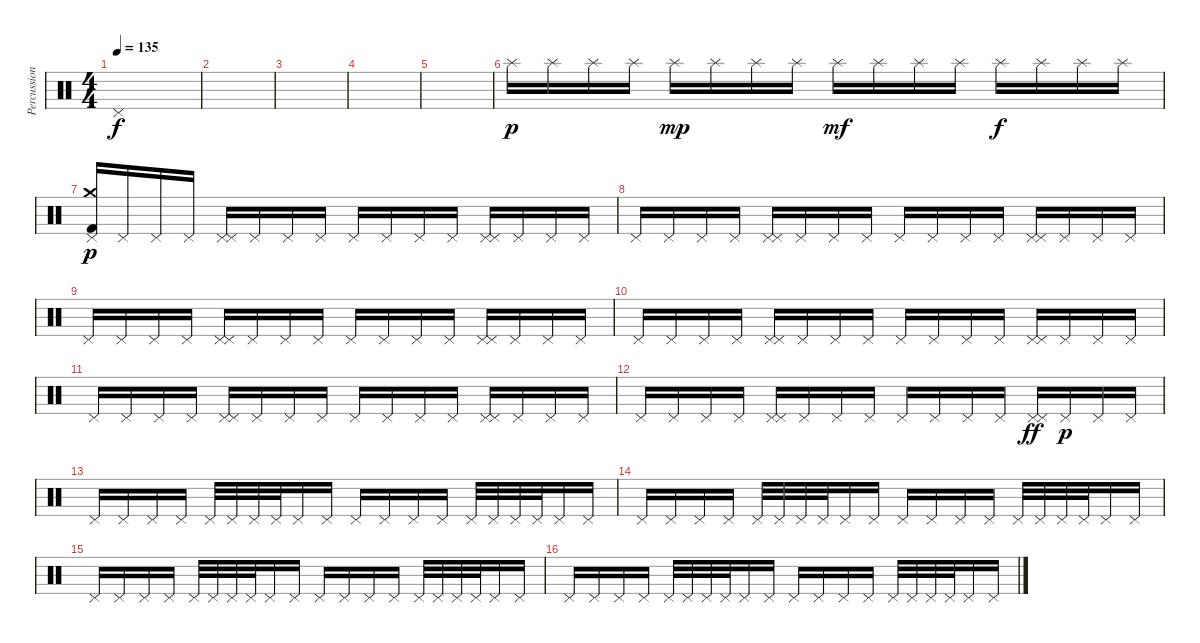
\track ("Percussions" "Percussion") {instrument percussion}
\staff {score}
\articulation defaults
\ts (4 4)
\tempo 135
\clef neutral
\ks c "Pedal Hi-Hat (hit)".1{dy f}
|
|
|
|
|
"Splash (hit)".16{dy p} "Splash (hit)".16 "Splash (hit)".16 "Splash (hit)".16 "Splash (hit)".16{dy mp} "Splash (hit)".16 "Splash (hit)".16 "Splash (hit)".16 "Splash (hit)".16{dy mf} "Splash (hit)".16 "Splash (hit)".16 "Splash (hit)".16 "Splash (hit)".16{dy f} "Splash (hit)".16 "Splash (hit)".16 "Splash (hit)".16 |
("Crash medium (hit)" "Pedal Hi-Hat (hit)" "Kick (hit) 2").16{dy p} "Pedal Hi-Hat (hit)".16 "Pedal Hi-Hat (hit)".16 "Pedal Hi-Hat (hit)".16 ("Pedal Hi-Hat (hit)" "Pedal Hi-Hat (hit)").16 "Pedal Hi-Hat (hit)".16 "Pedal Hi-Hat (hit)".16 "Pedal Hi-Hat (hit)".16 "Pedal Hi-Hat (hit)".16 "Pedal Hi-Hat (hit)".16 "Pedal Hi-Hat (hit)".16 "Pedal Hi-Hat (hit)".16 ("Pedal Hi-Hat (hit)" "Pedal Hi-Hat (hit)").16 "Pedal Hi-Hat (hit)".16 "Pedal Hi-Hat (hit)".16 "Pedal Hi-Hat (hit)".16 |
"Pedal Hi-Hat (hit)".16 "Pedal Hi-Hat (hit)".16 "Pedal Hi-Hat (hit)".16 "Pedal Hi-Hat (hit)".16 ("Pedal Hi-Hat (hit)" "Pedal Hi-Hat (hit)").16 "Pedal Hi-Hat (hit)".16 "Pedal Hi-Hat (hit)".16 "Pedal Hi-Hat (hit)".16 "Pedal Hi-Hat (hit)".16 "Pedal Hi-Hat (hit)".16 "Pedal Hi-Hat (hit)".16 "Pedal Hi-Hat (hit)".16 ("Pedal Hi-Hat (hit)" "Pedal Hi-Hat (hit)").16 "Pedal Hi-Hat (hit)".16 "Pedal Hi-Hat (hit)".16 "Pedal Hi-Hat (hit)".16 |
"Pedal Hi-Hat (hit)".16 "Pedal Hi-Hat (hit)".16 "Pedal Hi-Hat (hit)".16 "Pedal Hi-Hat (hit)".16 ("Pedal Hi-Hat (hit)" "Pedal Hi-Hat (hit)").16 "Pedal Hi-Hat (hit)".16 "Pedal Hi-Hat (hit)".16 "Pedal Hi-Hat (hit)".16 "Pedal Hi-Hat (hit)".16 "Pedal Hi-Hat (hit)".16 "Pedal Hi-Hat (hit)".16 "Pedal Hi-Hat (hit)".16 ("Pedal Hi-Hat (hit)" "Pedal Hi-Hat (hit)").16 "Pedal Hi-Hat (hit)".16 "Pedal Hi-Hat (hit)".16 "Pedal Hi-Hat (hit)".16 |
"Pedal Hi-Hat (hit)".16 "Pedal Hi-Hat (hit)".16 "Pedal Hi-Hat (hit)".16 "Pedal Hi-Hat (hit)".16 ("Pedal Hi-Hat (hit)" "Pedal Hi-Hat (hit)").16 "Pedal Hi-Hat (hit)".16 "Pedal Hi-Hat (hit)".16 "Pedal Hi-Hat (hit)".16 "Pedal Hi-Hat (hit)".16 "Pedal Hi-Hat (hit)".16 "Pedal Hi-Hat (hit)".16 "Pedal Hi-Hat (hit)".16 ("Pedal Hi-Hat (hit)" "Pedal Hi-Hat (hit)").16 "Pedal Hi-Hat (hit)".16 "Pedal Hi-Hat (hit)".16 "Pedal Hi-Hat (hit)".16 |
"Pedal Hi-Hat (hit)".16 "Pedal Hi-Hat (hit)".16 "Pedal Hi-Hat (hit)".16 "Pedal Hi-Hat (hit)".16 ("Pedal Hi-Hat (hit)" "Pedal Hi-Hat (hit)").16 "Pedal Hi-Hat (hit)".16 "Pedal Hi-Hat (hit)".16 "Pedal Hi-Hat (hit)".16 "Pedal Hi-Hat (hit)".16 "Pedal Hi-Hat (hit)".16 "Pedal Hi-Hat (hit)".16 "Pedal Hi-Hat (hit)".16 ("Pedal Hi-Hat (hit)" "Pedal Hi-Hat (hit)").16 "Pedal Hi-Hat (hit)".16 "Pedal Hi-Hat (hit)".16 "Pedal Hi-Hat (hit)".16 |
"Pedal Hi-Hat (hit)".16 "Pedal Hi-Hat (hit)".16 "Pedal Hi-Hat (hit)".16 "Pedal Hi-Hat (hit)".16 ("Pedal Hi-Hat (hit)" "Pedal Hi-Hat (hit)").16 "Pedal Hi-Hat (hit)".16 "Pedal Hi-Hat (hit)".16 "Pedal Hi-Hat (hit)".16 "Pedal Hi-Hat (hit)".16 "Pedal Hi-Hat (hit)".16 "Pedal Hi-Hat (hit)".16 "Pedal Hi-Hat (hit)".16 ("Pedal Hi-Hat (hit)" "Pedal Hi-Hat (hit)").16{dy ff} "Pedal Hi-Hat (hit)".16{dy p} "Pedal Hi-Hat (hit)".16 "Pedal Hi-Hat (hit)".16 |
"Pedal Hi-Hat (hit)".16 "Pedal Hi-Hat (hit)".16 "Pedal Hi-Hat (hit)".16 "Pedal Hi-Hat (hit)".16 "Pedal Hi-Hat (hit)".32 "Pedal Hi-Hat (hit)".32 "Pedal Hi-Hat (hit)".32 "Pedal Hi-Hat (hit)".32 "Pedal Hi-Hat (hit)".16 "Pedal Hi-Hat (hit)".16 "Pedal Hi-Hat (hit)".16 "Pedal Hi-Hat (hit)".16 "Pedal Hi-Hat (hit)".16 "Pedal Hi-Hat (hit)".16 "Pedal Hi-Hat (hit)".32 "Pedal Hi-Hat (hit)".32 "Pedal Hi-Hat (hit)".32 "Pedal Hi-Hat (hit)".32 "Pedal Hi-Hat (hit)".16 "Pedal Hi-Hat (hit)".16 |
"Pedal Hi-Hat (hit)".16 "Pedal Hi-Hat (hit)".16 "Pedal Hi-Hat (hit)".16 "Pedal Hi-Hat (hit)".16 "Pedal Hi-Hat (hit)".32 "Pedal Hi-Hat (hit)".32 "Pedal Hi-Hat (hit)".32 "Pedal Hi-Hat (hit)".32 "Pedal Hi-Hat (hit)".16 "Pedal Hi-Hat (hit)".16 "Pedal Hi-Hat (hit)".16 "Pedal Hi-Hat (hit)".16 "Pedal Hi-Hat (hit)".16 "Pedal Hi-Hat (hit)".16 "Pedal Hi-Hat (hit)".32 "Pedal Hi-Hat (hit)".32 "Pedal Hi-Hat (hit)".32 "Pedal Hi-Hat (hit)".32 "Pedal Hi-Hat (hit)".16 "Pedal Hi-Hat (hit)".16 |
"Pedal Hi-Hat (hit)".16 "Pedal Hi-Hat (hit)".16 "Pedal Hi-Hat (hit)".16 "Pedal Hi-Hat (hit)".16 "Pedal Hi-Hat (hit)".32 "Pedal Hi-Hat (hit)".32 "Pedal Hi-Hat (hit)".32 "Pedal Hi-Hat (hit)".32 "Pedal Hi-Hat (hit)".16 "Pedal Hi-Hat (hit)".16 "Pedal Hi-Hat (hit)".16 "Pedal Hi-Hat (hit)".16 "Pedal Hi-Hat (hit)".16 "Pedal Hi-Hat (hit)".16 "Pedal Hi-Hat (hit)".32 "Pedal Hi-Hat (hit)".32 "Pedal Hi-Hat (hit)".32 "Pedal Hi-Hat (hit)".32 "Pedal Hi-Hat (hit)".16 "Pedal Hi-Hat (hit)".16 |
"Pedal Hi-Hat (hit)".16 "Pedal Hi-Hat (hit)".16 "Pedal Hi-Hat (hit)".16 "Pedal Hi-Hat (hit)".16 "Pedal Hi-Hat (hit)".32 "Pedal Hi-Hat (hit)".32 "Pedal Hi-Hat (hit)".32 "Pedal Hi-Hat (hit)".32 "Pedal Hi-Hat (hit)".16 "Pedal Hi-Hat (hit)".16 "Pedal Hi-Hat (hit)".16 "Pedal Hi-Hat (hit)".16 "Pedal Hi-Hat (hit)".16 "Pedal Hi-Hat (hit)".16 "Pedal Hi-Hat (hit)".32 "Pedal Hi-Hat (hit)".32 "Pedal Hi-Hat (hit)".32 "Pedal Hi-Hat (hit)".32 "Pedal Hi-Hat (hit)".16 "Pedal Hi-Hat (hit)".16
